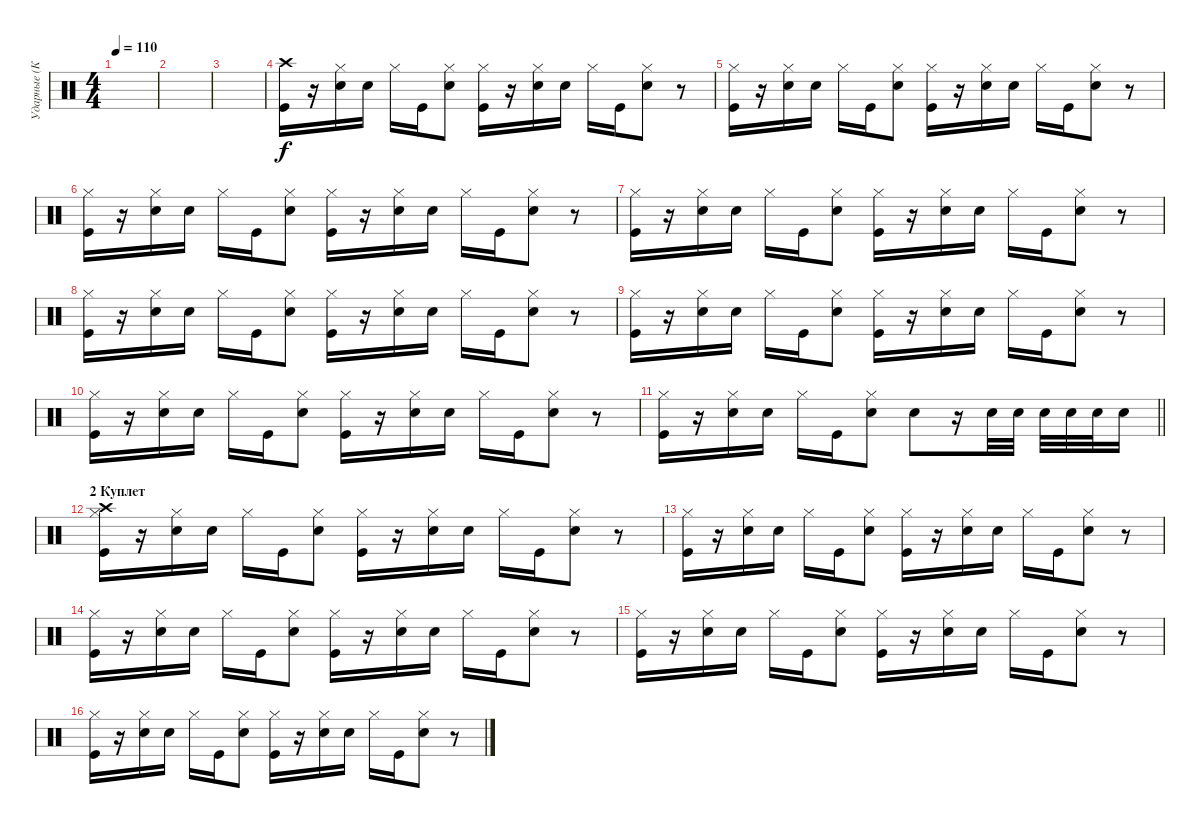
\track ("Ударные (Коля Лысов" "Ударные (К") {instrument percussion}
\staff {score}
\articulation defaults
\ts (4 4)
\tempo 110
\clef neutral
\ks c
|
|
|
("Kick (hit)" "Crash high (hit)").16 r.16 ("Snare (hit) 2" "Hi-Hat (closed)").16 "Snare (hit) 2".16 "Hi-Hat (closed)".16 "Kick (hit)".16 ("Snare (hit) 2" "Hi-Hat (closed)").8 ("Kick (hit)" "Hi-Hat (closed)").16 r.16 ("Snare (hit) 2" "Hi-Hat (closed)").16 "Snare (hit) 2".16 "Hi-Hat (closed)".16 "Kick (hit)".16 ("Snare (hit) 2" "Hi-Hat (closed)").8 r.8 |
("Kick (hit)" "Hi-Hat (closed)").16 r.16 ("Snare (hit) 2" "Hi-Hat (closed)").16 "Snare (hit) 2".16 "Hi-Hat (closed)".16 "Kick (hit)".16 ("Snare (hit) 2" "Hi-Hat (closed)").8 ("Kick (hit)" "Hi-Hat (closed)").16 r.16 ("Snare (hit) 2" "Hi-Hat (closed)").16 "Snare (hit) 2".16 "Hi-Hat (closed)".16 "Kick (hit)".16 ("Snare (hit) 2" "Hi-Hat (closed)").8 r.8 |
("Kick (hit)" "Hi-Hat (closed)").16 r.16 ("Snare (hit) 2" "Hi-Hat (closed)").16 "Snare (hit) 2".16 "Hi-Hat (closed)".16 "Kick (hit)".16 ("Snare (hit) 2" "Hi-Hat (closed)").8 ("Kick (hit)" "Hi-Hat (closed)").16 r.16 ("Snare (hit) 2" "Hi-Hat (closed)").16 "Snare (hit) 2".16 "Hi-Hat (closed)".16 "Kick (hit)".16 ("Snare (hit) 2" "Hi-Hat (closed)").8 r.8 |
("Kick (hit)" "Hi-Hat (closed)").16 r.16 ("Snare (hit) 2" "Hi-Hat (closed)").16 "Snare (hit) 2".16 "Hi-Hat (closed)".16 "Kick (hit)".16 ("Snare (hit) 2" "Hi-Hat (closed)").8 ("Kick (hit)" "Hi-Hat (closed)").16 r.16 ("Snare (hit) 2" "Hi-Hat (closed)").16 "Snare (hit) 2".16 "Hi-Hat (closed)".16 "Kick (hit)".16 ("Snare (hit) 2" "Hi-Hat (closed)").8 r.8 |
("Kick (hit)" "Hi-Hat (closed)").16 r.16 ("Snare (hit) 2" "Hi-Hat (closed)").16 "Snare (hit) 2".16 "Hi-Hat (closed)".16 "Kick (hit)".16 ("Snare (hit) 2" "Hi-Hat (closed)").8 ("Kick (hit)" "Hi-Hat (closed)").16 r.16 ("Snare (hit) 2" "Hi-Hat (closed)").16 "Snare (hit) 2".16 "Hi-Hat (closed)".16 "Kick (hit)".16 ("Snare (hit) 2" "Hi-Hat (closed)").8 r.8 |
("Kick (hit)" "Hi-Hat (closed)").16 r.16 ("Snare (hit) 2" "Hi-Hat (closed)").16 "Snare (hit) 2".16 "Hi-Hat (closed)".16 "Kick (hit)".16 ("Snare (hit) 2" "Hi-Hat (closed)").8 ("Kick (hit)" "Hi-Hat (closed)").16 r.16 ("Snare (hit) 2" "Hi-Hat (closed)").16 "Snare (hit) 2".16 "Hi-Hat (closed)".16 "Kick (hit)".16 ("Snare (hit) 2" "Hi-Hat (closed)").8 r.8 |
("Kick (hit)" "Hi-Hat (closed)").16 r.16 ("Snare (hit) 2" "Hi-Hat (closed)").16 "Snare (hit) 2".16 "Hi-Hat (closed)".16 "Kick (hit)".16 ("Snare (hit) 2" "Hi-Hat (closed)").8 ("Kick (hit)" "Hi-Hat (closed)").16 r.16 ("Snare (hit) 2" "Hi-Hat (closed)").16 "Snare (hit) 2".16 "Hi-Hat (closed)".16 "Kick (hit)".16 ("Snare (hit) 2" "Hi-Hat (closed)").8 r.8 |
\barLineRight lightlight
("Kick (hit)" "Hi-Hat (closed)").16 r.16 ("Snare (hit) 2" "Hi-Hat (closed)").16 "Snare (hit) 2".16 "Hi-Hat (closed)".16 "Kick (hit)".16 ("Snare (hit) 2" "Hi-Hat (closed)").8 "Snare (hit) 2".8 r.16 "Snare (hit) 2".32 "Snare (hit) 2".32 "Snare (hit) 2".32 "Snare (hit) 2".32 "Snare (hit) 2".32 "Snare (hit) 2".16 |
\section ("" "2 Куплет")
("Kick (hit)" "Hi-Hat (closed)" "Crash high (hit)").16 r.16 ("Snare (hit) 2" "Hi-Hat (closed)").16 "Snare (hit) 2".16 "Hi-Hat (closed)".16 "Kick (hit)".16 ("Snare (hit) 2" "Hi-Hat (closed)").8 ("Kick (hit)" "Hi-Hat (closed)").16 r.16 ("Snare (hit) 2" "Hi-Hat (closed)").16 "Snare (hit) 2".16 "Hi-Hat (closed)".16 "Kick (hit)".16 ("Snare (hit) 2" "Hi-Hat (closed)").8 r.8 |
("Kick (hit)" "Hi-Hat (closed)").16 r.16 ("Snare (hit) 2" "Hi-Hat (closed)").16 "Snare (hit) 2".16 "Hi-Hat (closed)".16 "Kick (hit)".16 ("Snare (hit) 2" "Hi-Hat (closed)").8 ("Kick (hit)" "Hi-Hat (closed)").16 r.16 ("Snare (hit) 2" "Hi-Hat (closed)").16 "Snare (hit) 2".16 "Hi-Hat (closed)".16 "Kick (hit)".16 ("Snare (hit) 2" "Hi-Hat (closed)").8 r.8 |
("Kick (hit)" "Hi-Hat (closed)").16 r.16 ("Snare (hit) 2" "Hi-Hat (closed)").16 "Snare (hit) 2".16 "Hi-Hat (closed)".16 "Kick (hit)".16 ("Snare (hit) 2" "Hi-Hat (closed)").8 ("Kick (hit)" "Hi-Hat (closed)").16 r.16 ("Snare (hit) 2" "Hi-Hat (closed)").16 "Snare (hit) 2".16 "Hi-Hat (closed)".16 "Kick (hit)".16 ("Snare (hit) 2" "Hi-Hat (closed)").8 r.8 |
("Kick (hit)" "Hi-Hat (closed)").16 r.16 ("Snare (hit) 2" "Hi-Hat (closed)").16 "Snare (hit) 2".16 "Hi-Hat (closed)".16 "Kick (hit)".16 ("Snare (hit) 2" "Hi-Hat (closed)").8 ("Kick (hit)" "Hi-Hat (closed)").16 r.16 ("Snare (hit) 2" "Hi-Hat (closed)").16 "Snare (hit) 2".16 "Hi-Hat (closed)".16 "Kick (hit)".16 ("Snare (hit) 2" "Hi-Hat (closed)").8 r.8 |
("Kick (hit)" "Hi-Hat (closed)").16 r.16 ("Snare (hit) 2" "Hi-Hat (closed)").16 "Snare (hit) 2".16 "Hi-Hat (closed)".16 "Kick (hit)".16 ("Snare (hit) 2" "Hi-Hat (closed)").8 ("Kick (hit)" "Hi-Hat (closed)").16 r.16 ("Snare (hit) 2" "Hi-Hat (closed)").16 "Snare (hit) 2".16 "Hi-Hat (closed)".16 "Kick (hit)".16 ("Snare (hit) 2" "Hi-Hat (closed)").8 r.8
